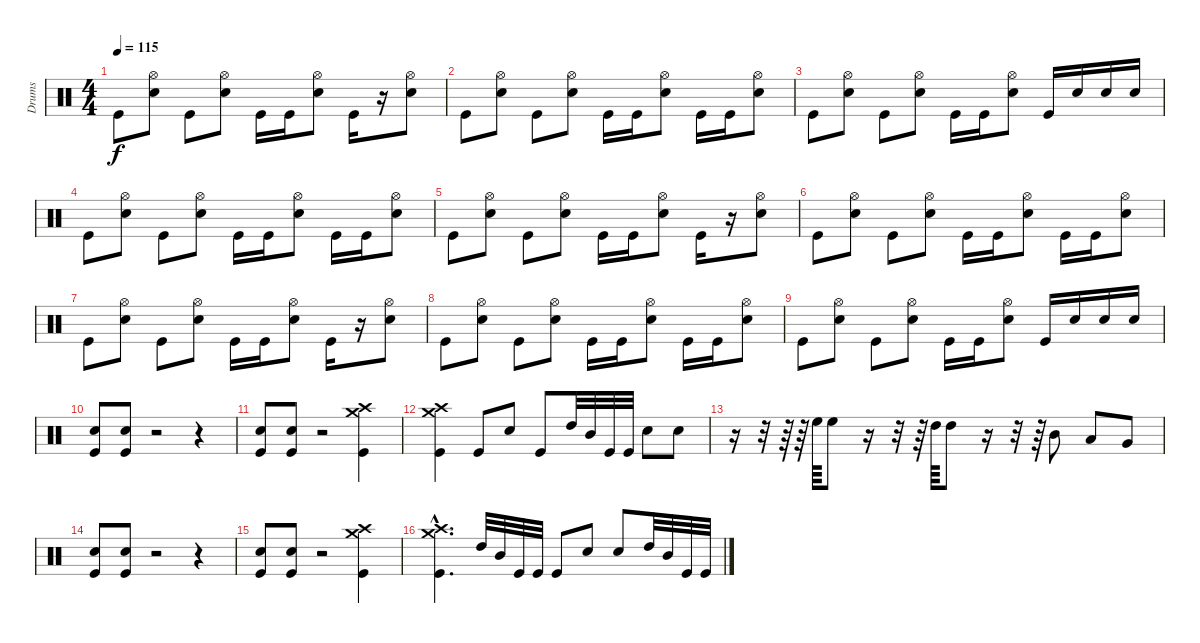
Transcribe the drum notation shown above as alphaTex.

\track ("Drums" "Drums") {instrument percussion}
\staff {score}
\articulation defaults
\ts (4 4)
\tempo 115
\clef neutral
\ks c "Kick (hit)".8{dy f}
("Electric Snare (hit)" "Hi-Hat (open)").8 "Kick (hit)".8 ("Electric Snare (hit)" "Hi-Hat (open)").8 "Kick (hit)".16 "Kick (hit)".16 ("Electric Snare (hit)" "Hi-Hat (open)").8 "Kick (hit)".16 r.16 ("Electric Snare (hit)" "Hi-Hat (open)").8 |
"Kick (hit)".8 ("Electric Snare (hit)" "Hi-Hat (open)").8 "Kick (hit)".8 ("Electric Snare (hit)" "Hi-Hat (open)").8 "Kick (hit)".16 "Kick (hit)".16 ("Electric Snare (hit)" "Hi-Hat (open)").8 "Kick (hit)".16 "Kick (hit)".16 ("Electric Snare (hit)" "Hi-Hat (open)").8 |
"Kick (hit)".8 ("Electric Snare (hit)" "Hi-Hat (open)").8 "Kick (hit)".8 ("Electric Snare (hit)" "Hi-Hat (open)").8 "Kick (hit)".16 "Kick (hit)".16 ("Electric Snare (hit)" "Hi-Hat (open)").8 "Kick (hit)".16 "Electric Snare (hit)".16 "Electric Snare (hit)".16 "Electric Snare (hit)".16 |
"Kick (hit)".8 ("Electric Snare (hit)" "Hi-Hat (open)").8 "Kick (hit)".8 ("Electric Snare (hit)" "Hi-Hat (open)").8 "Kick (hit)".16 "Kick (hit)".16 ("Electric Snare (hit)" "Hi-Hat (open)").8 "Kick (hit)".16 "Kick (hit)".16 ("Electric Snare (hit)" "Hi-Hat (open)").8 |
"Kick (hit)".8 ("Electric Snare (hit)" "Hi-Hat (open)").8 "Kick (hit)".8 ("Electric Snare (hit)" "Hi-Hat (open)").8 "Kick (hit)".16 "Kick (hit)".16 ("Electric Snare (hit)" "Hi-Hat (open)").8 "Kick (hit)".16 r.16 ("Electric Snare (hit)" "Hi-Hat (open)").8 |
"Kick (hit)".8 ("Electric Snare (hit)" "Hi-Hat (open)").8 "Kick (hit)".8 ("Electric Snare (hit)" "Hi-Hat (open)").8 "Kick (hit)".16 "Kick (hit)".16 ("Electric Snare (hit)" "Hi-Hat (open)").8 "Kick (hit)".16 "Kick (hit)".16 ("Electric Snare (hit)" "Hi-Hat (open)").8 |
"Kick (hit)".8 ("Electric Snare (hit)" "Hi-Hat (open)").8 "Kick (hit)".8 ("Electric Snare (hit)" "Hi-Hat (open)").8 "Kick (hit)".16 "Kick (hit)".16 ("Electric Snare (hit)" "Hi-Hat (open)").8 "Kick (hit)".16 r.16 ("Electric Snare (hit)" "Hi-Hat (open)").8 |
"Kick (hit)".8 ("Electric Snare (hit)" "Hi-Hat (open)").8 "Kick (hit)".8 ("Electric Snare (hit)" "Hi-Hat (open)").8 "Kick (hit)".16 "Kick (hit)".16 ("Electric Snare (hit)" "Hi-Hat (open)").8 "Kick (hit)".16 "Kick (hit)".16 ("Electric Snare (hit)" "Hi-Hat (open)").8 |
"Kick (hit)".8 ("Electric Snare (hit)" "Hi-Hat (open)").8 "Kick (hit)".8 ("Electric Snare (hit)" "Hi-Hat (open)").8 "Kick (hit)".16 "Kick (hit)".16 ("Electric Snare (hit)" "Hi-Hat (open)").8 "Kick (hit)".16 "Electric Snare (hit)".16 "Electric Snare (hit)".16 "Electric Snare (hit)".16 |
("Electric Snare (hit)" "Kick (hit)").8 ("Electric Snare (hit)" "Kick (hit)").8 r.2 r.4 |
("Electric Snare (hit)" "Kick (hit)").8 ("Electric Snare (hit)" "Kick (hit)").8 r.2 ("Kick (hit)" "Crash medium (hit)" "Crash high (hit)").4 |
("Crash high (hit)" "Crash medium (hit)" "Kick (hit)").4 "Kick (hit)".8 "Electric Snare (hit)".8 "Kick (hit)".8 "High Tom (hit)".32 "Mid Tom (hit)".32 "Kick (hit)".32 "Kick (hit)".32 "Electric Snare (hit)".8 "Electric Snare (hit)".8 |
r.16 r.32 r.64 r.64 "High Floor Tom (hit)".64 "High Floor Tom (hit)".8 r.16 r.32 r.64 "High Tom (hit)".64 "High Tom (hit)".8 r.16 r.32 r.64 "Mid Tom (hit)".8 "Low Tom (hit)".8 "Very Low Tom (hit)".8 |
("Electric Snare (hit)" "Kick (hit)").8 ("Electric Snare (hit)" "Kick (hit)").8 r.2 r.4 |
("Electric Snare (hit)" "Kick (hit)").8 ("Electric Snare (hit)" "Kick (hit)").8 r.2 ("Kick (hit)" "Crash medium (hit)" "Crash high (hit)").4 |
("Crash high (hit)"{hac} "Crash medium (hit)"{hac} "Kick (hit)"{hac}).4{d} "High Tom (hit)".32 "Mid Tom (hit)".32 "Kick (hit)".32 "Kick (hit)".32 "Kick (hit)".8 "Electric Snare (hit)".8 "Electric Snare (hit)".8 "High Tom (hit)".32 "Mid Tom (hit)".32 "Kick (hit)".32 "Kick (hit)".32
